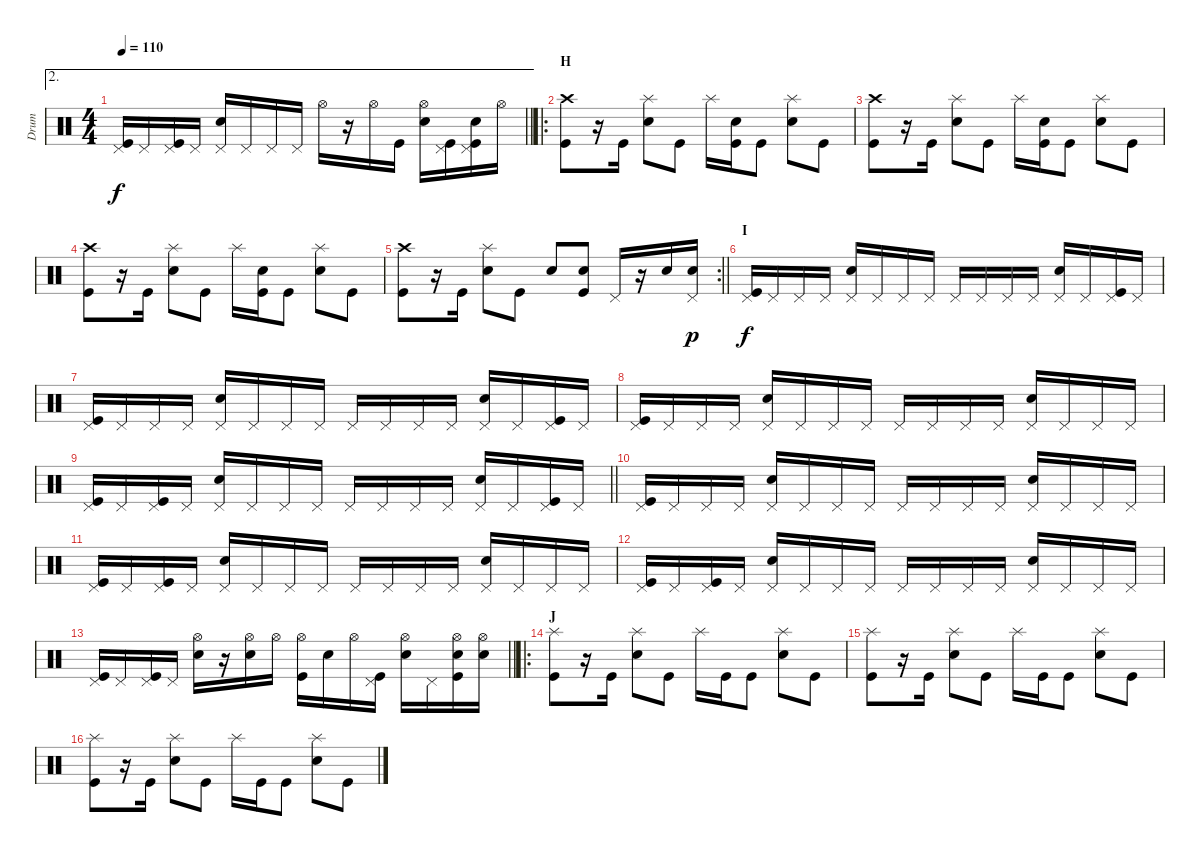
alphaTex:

\track ("Drum" "Drum") {instrument percussion}
\staff {score}
\articulation defaults
\ae 2
\ts (4 4)
\tempo 110
\clef neutral
\barLineRight lightlight
\ks c
("Pedal Hi-Hat (hit)" "Kick (hit)").16{dy f} "Pedal Hi-Hat (hit)".16 ("Pedal Hi-Hat (hit)" "Kick (hit)").16 "Pedal Hi-Hat (hit)".16 ("Pedal Hi-Hat (hit)" "Snare (hit) 2").16 "Pedal Hi-Hat (hit)".16 "Pedal Hi-Hat (hit)".16 "Pedal Hi-Hat (hit)".16 "Hi-Hat (open)".16 r.16 "Hi-Hat (open)".16 "Kick (hit)".16 ("Hi-Hat (open)" "Snare (hit) 2").16 ("Pedal Hi-Hat (hit)" "Kick (hit)").16 ("Pedal Hi-Hat (hit)" "Snare (hit) 2" "Kick (hit)").16 "Hi-Hat (open)".16 |
\ro
\section ("" "H")
("Crash high (hit)" "Kick (hit)").8 r.16 "Kick (hit)".16 ("Splash (hit)" "Snare (hit) 2").8 "Kick (hit)".8 "Splash (hit)".16 ("Snare (hit) 2" "Kick (hit)").16 "Kick (hit)".8 ("Splash (hit)" "Snare (hit) 2").8 "Kick (hit)".8 |
("Crash high (hit)" "Kick (hit)").8 r.16 "Kick (hit)".16 ("Splash (hit)" "Snare (hit) 2").8 "Kick (hit)".8 "Splash (hit)".16 ("Snare (hit) 2" "Kick (hit)").16 "Kick (hit)".8 ("Splash (hit)" "Snare (hit) 2").8 "Kick (hit)".8 |
("Crash high (hit)" "Kick (hit)").8 r.16 "Kick (hit)".16 ("Splash (hit)" "Snare (hit) 2").8 "Kick (hit)".8 "Splash (hit)".16 ("Snare (hit) 2" "Kick (hit)").16 "Kick (hit)".8 ("Splash (hit)" "Snare (hit) 2").8 "Kick (hit)".8 |
\rc 2
\barLineRight lightlight
("Crash high (hit)" "Kick (hit)").8 r.16 "Kick (hit)".16 ("Splash (hit)" "Snare (hit) 2").8 "Kick (hit)".8 "Snare (hit) 2".8 ("Snare (hit) 2" "Kick (hit)").8 "Pedal Hi-Hat (hit)".16 r.16 "Snare (hit) 2".16 ("Pedal Hi-Hat (hit)" "Snare (hit) 2").16{dy p} |
\section ("" "I")
("Pedal Hi-Hat (hit)" "Kick (hit)").16{dy f} "Pedal Hi-Hat (hit)".16 "Pedal Hi-Hat (hit)".16 "Pedal Hi-Hat (hit)".16 ("Pedal Hi-Hat (hit)" "Snare (hit) 2").16 "Pedal Hi-Hat (hit)".16 "Pedal Hi-Hat (hit)".16 "Pedal Hi-Hat (hit)".16 "Pedal Hi-Hat (hit)".16 "Pedal Hi-Hat (hit)".16 "Pedal Hi-Hat (hit)".16 "Pedal Hi-Hat (hit)".16 ("Pedal Hi-Hat (hit)" "Snare (hit) 2").16 "Pedal Hi-Hat (hit)".16 ("Pedal Hi-Hat (hit)" "Kick (hit)").16 "Pedal Hi-Hat (hit)".16 |
("Pedal Hi-Hat (hit)" "Kick (hit)").16 "Pedal Hi-Hat (hit)".16 "Pedal Hi-Hat (hit)".16 "Pedal Hi-Hat (hit)".16 ("Pedal Hi-Hat (hit)" "Snare (hit) 2").16 "Pedal Hi-Hat (hit)".16 "Pedal Hi-Hat (hit)".16 "Pedal Hi-Hat (hit)".16 "Pedal Hi-Hat (hit)".16 "Pedal Hi-Hat (hit)".16 "Pedal Hi-Hat (hit)".16 "Pedal Hi-Hat (hit)".16 ("Pedal Hi-Hat (hit)" "Snare (hit) 2").16 "Pedal Hi-Hat (hit)".16 ("Pedal Hi-Hat (hit)" "Kick (hit)").16 "Pedal Hi-Hat (hit)".16 |
("Pedal Hi-Hat (hit)" "Kick (hit)").16 "Pedal Hi-Hat (hit)".16 "Pedal Hi-Hat (hit)".16 "Pedal Hi-Hat (hit)".16 ("Pedal Hi-Hat (hit)" "Snare (hit) 2").16 "Pedal Hi-Hat (hit)".16 "Pedal Hi-Hat (hit)".16 "Pedal Hi-Hat (hit)".16 "Pedal Hi-Hat (hit)".16 "Pedal Hi-Hat (hit)".16 "Pedal Hi-Hat (hit)".16 "Pedal Hi-Hat (hit)".16 ("Pedal Hi-Hat (hit)" "Snare (hit) 2").16 "Pedal Hi-Hat (hit)".16 "Pedal Hi-Hat (hit)".16 "Pedal Hi-Hat (hit)".16 |
\barLineRight lightlight
("Pedal Hi-Hat (hit)" "Kick (hit)").16 "Pedal Hi-Hat (hit)".16 ("Pedal Hi-Hat (hit)" "Kick (hit)").16 "Pedal Hi-Hat (hit)".16 ("Pedal Hi-Hat (hit)" "Snare (hit) 2").16 "Pedal Hi-Hat (hit)".16 "Pedal Hi-Hat (hit)".16 "Pedal Hi-Hat (hit)".16 "Pedal Hi-Hat (hit)".16 "Pedal Hi-Hat (hit)".16 "Pedal Hi-Hat (hit)".16 "Pedal Hi-Hat (hit)".16 ("Pedal Hi-Hat (hit)" "Snare (hit) 2").16 "Pedal Hi-Hat (hit)".16 ("Pedal Hi-Hat (hit)" "Kick (hit)").16 "Pedal Hi-Hat (hit)".16 |
("Pedal Hi-Hat (hit)" "Kick (hit)").16 "Pedal Hi-Hat (hit)".16 "Pedal Hi-Hat (hit)".16 "Pedal Hi-Hat (hit)".16 ("Pedal Hi-Hat (hit)" "Snare (hit) 2").16 "Pedal Hi-Hat (hit)".16 "Pedal Hi-Hat (hit)".16 "Pedal Hi-Hat (hit)".16 "Pedal Hi-Hat (hit)".16 "Pedal Hi-Hat (hit)".16 "Pedal Hi-Hat (hit)".16 "Pedal Hi-Hat (hit)".16 ("Pedal Hi-Hat (hit)" "Snare (hit) 2").16 "Pedal Hi-Hat (hit)".16 "Pedal Hi-Hat (hit)".16 "Pedal Hi-Hat (hit)".16 |
("Pedal Hi-Hat (hit)" "Kick (hit)").16 "Pedal Hi-Hat (hit)".16 ("Pedal Hi-Hat (hit)" "Kick (hit)").16 "Pedal Hi-Hat (hit)".16 ("Pedal Hi-Hat (hit)" "Snare (hit) 2").16 "Pedal Hi-Hat (hit)".16 "Pedal Hi-Hat (hit)".16 "Pedal Hi-Hat (hit)".16 "Pedal Hi-Hat (hit)".16 "Pedal Hi-Hat (hit)".16 "Pedal Hi-Hat (hit)".16 "Pedal Hi-Hat (hit)".16 ("Pedal Hi-Hat (hit)" "Snare (hit) 2").16 "Pedal Hi-Hat (hit)".16 "Pedal Hi-Hat (hit)".16 "Pedal Hi-Hat (hit)".16 |
("Pedal Hi-Hat (hit)" "Kick (hit)").16 "Pedal Hi-Hat (hit)".16 ("Pedal Hi-Hat (hit)" "Kick (hit)").16 "Pedal Hi-Hat (hit)".16 ("Pedal Hi-Hat (hit)" "Snare (hit) 2").16 "Pedal Hi-Hat (hit)".16 "Pedal Hi-Hat (hit)".16 "Pedal Hi-Hat (hit)".16 "Pedal Hi-Hat (hit)".16 "Pedal Hi-Hat (hit)".16 "Pedal Hi-Hat (hit)".16 "Pedal Hi-Hat (hit)".16 ("Pedal Hi-Hat (hit)" "Snare (hit) 2").16 "Pedal Hi-Hat (hit)".16 "Pedal Hi-Hat (hit)".16 "Pedal Hi-Hat (hit)".16 |
\barLineRight lightlight
("Pedal Hi-Hat (hit)" "Kick (hit)").16 "Pedal Hi-Hat (hit)".16 ("Pedal Hi-Hat (hit)" "Kick (hit)").16 "Pedal Hi-Hat (hit)".16 ("Hi-Hat (open)" "Snare (hit) 2").16 r.16 ("Hi-Hat (open)" "Snare (hit) 2").16 "Hi-Hat (open)".16 ("Hi-Hat (open)" "Kick (hit)").16 "Snare (hit) 2".16 "Hi-Hat (open)".16 ("Pedal Hi-Hat (hit)" "Kick (hit)").16 ("Hi-Hat (open)" "Snare (hit) 2").16 "Pedal Hi-Hat (hit)".16 ("Hi-Hat (open)" "Snare (hit) 2" "Kick (hit)").16 ("Hi-Hat (open)" "Snare (hit) 2").16 |
\ro
\section ("" "J")
("Splash (hit)" "Kick (hit)").8 r.16 "Kick (hit)".16 ("Splash (hit)" "Snare (hit) 2").8 "Kick (hit)".8 "Splash (hit)".16 "Kick (hit)".16 "Kick (hit)".8 ("Splash (hit)" "Snare (hit) 2").8 "Kick (hit)".8 |
("Splash (hit)" "Kick (hit)").8 r.16 "Kick (hit)".16 ("Splash (hit)" "Snare (hit) 2").8 "Kick (hit)".8 "Splash (hit)".16 "Kick (hit)".16 "Kick (hit)".8 ("Splash (hit)" "Snare (hit) 2").8 "Kick (hit)".8 |
("Splash (hit)" "Kick (hit)").8 r.16 "Kick (hit)".16 ("Splash (hit)" "Snare (hit) 2").8 "Kick (hit)".8 "Splash (hit)".16 "Kick (hit)".16 "Kick (hit)".8 ("Splash (hit)" "Snare (hit) 2").8 "Kick (hit)".8
